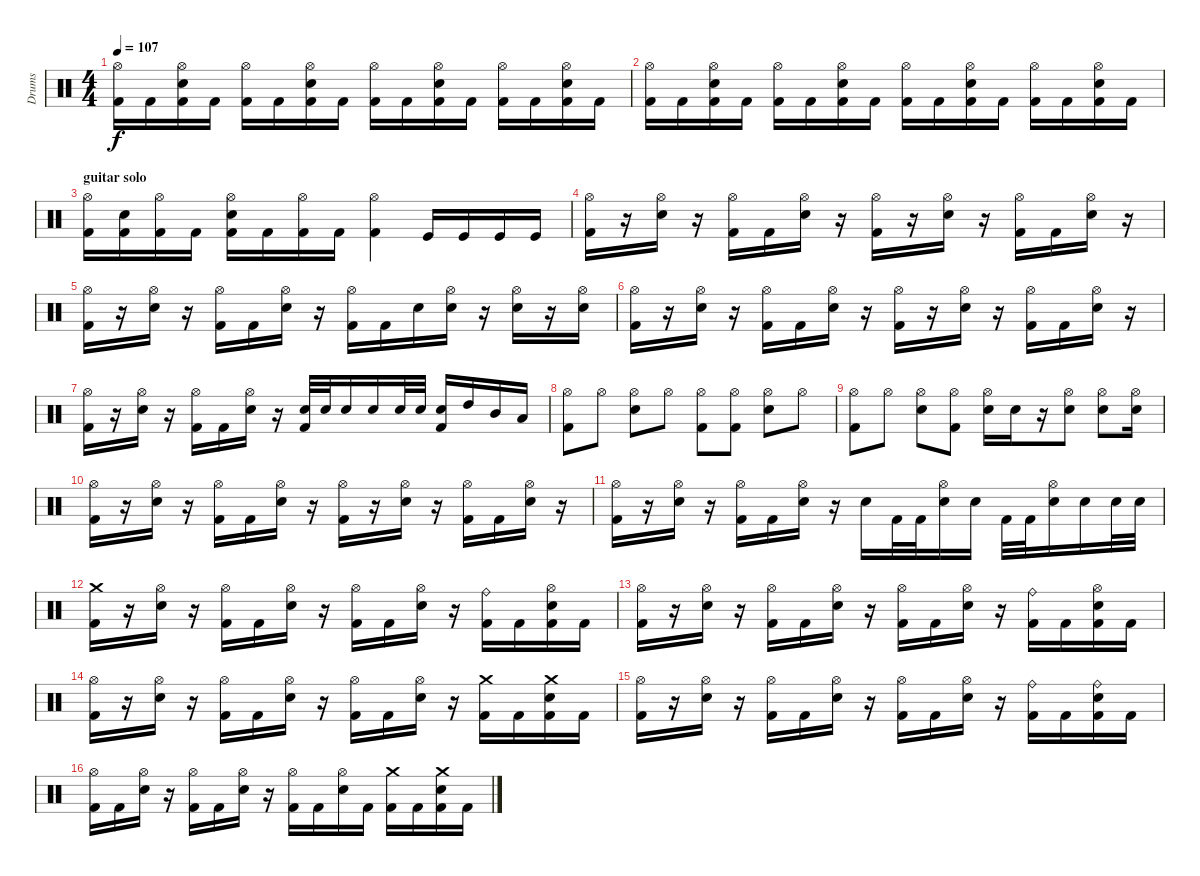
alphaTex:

\track ("Drums" "Drums") {instrument percussion}
\staff {score}
\articulation defaults
\ts (4 4)
\tempo 107
\clef neutral
\ks c
("Hi-Hat (open)" "Kick (hit) 2").16{dy f} "Kick (hit) 2".16 ("Hi-Hat (open)" "Snare (hit) 2" "Kick (hit) 2").16 "Kick (hit) 2".16 ("Hi-Hat (open)" "Kick (hit) 2").16 "Kick (hit) 2".16 ("Hi-Hat (open)" "Snare (hit) 2" "Kick (hit) 2").16 "Kick (hit) 2".16 ("Hi-Hat (open)" "Kick (hit) 2").16 "Kick (hit) 2".16 ("Hi-Hat (open)" "Snare (hit) 2" "Kick (hit) 2").16 "Kick (hit) 2".16 ("Hi-Hat (open)" "Kick (hit) 2").16 "Kick (hit) 2".16 ("Hi-Hat (open)" "Snare (hit) 2" "Kick (hit) 2").16 "Kick (hit) 2".16 |
("Hi-Hat (open)" "Kick (hit) 2").16 "Kick (hit) 2".16 ("Hi-Hat (open)" "Snare (hit) 2" "Kick (hit) 2").16 "Kick (hit) 2".16 ("Hi-Hat (open)" "Kick (hit) 2").16 "Kick (hit) 2".16 ("Hi-Hat (open)" "Snare (hit) 2" "Kick (hit) 2").16 "Kick (hit) 2".16 ("Hi-Hat (open)" "Kick (hit) 2").16 "Kick (hit) 2".16 ("Hi-Hat (open)" "Snare (hit) 2" "Kick (hit) 2").16 "Kick (hit) 2".16 ("Hi-Hat (open)" "Kick (hit) 2").16 "Kick (hit) 2".16 ("Hi-Hat (open)" "Snare (hit) 2" "Kick (hit) 2").16 "Kick (hit) 2".16 |
\section ("" "guitar solo")
("Hi-Hat (open)" "Kick (hit) 2").16 ("Snare (hit) 2" "Kick (hit) 2").16 ("Hi-Hat (open)" "Kick (hit) 2").16 "Kick (hit) 2".16 ("Hi-Hat (open)" "Snare (hit) 2" "Kick (hit) 2").16 "Kick (hit) 2".16 ("Hi-Hat (open)" "Kick (hit) 2").16 "Kick (hit) 2".16 ("Hi-Hat (open)" "Kick (hit) 2").4 "Kick (hit)".16 "Kick (hit)".16 "Kick (hit)".16 "Kick (hit)".16 |
("Hi-Hat (open)" "Kick (hit) 2").16 r.16 ("Hi-Hat (open)" "Snare (hit) 2").16 r.16 ("Hi-Hat (open)" "Kick (hit) 2").16 "Kick (hit) 2".16 ("Hi-Hat (open)" "Snare (hit) 2").16 r.16 ("Hi-Hat (open)" "Kick (hit) 2").16 r.16 ("Hi-Hat (open)" "Snare (hit) 2").16 r.16 ("Hi-Hat (open)" "Kick (hit) 2").16 "Kick (hit) 2".16 ("Hi-Hat (open)" "Snare (hit) 2").16 r.16 |
("Hi-Hat (open)" "Kick (hit) 2").16 r.16 ("Hi-Hat (open)" "Snare (hit) 2").16 r.16 ("Hi-Hat (open)" "Kick (hit) 2").16 "Kick (hit) 2".16 ("Hi-Hat (open)" "Snare (hit) 2").16 r.16 ("Hi-Hat (open)" "Kick (hit) 2").16 "Kick (hit) 2".16 "Snare (hit) 2".16 ("Hi-Hat (open)" "Snare (hit) 2").16 r.16 ("Hi-Hat (open)" "Snare (hit) 2").16 r.16 ("Hi-Hat (open)" "Snare (hit) 2").16 |
("Hi-Hat (open)" "Kick (hit) 2").16 r.16 ("Hi-Hat (open)" "Snare (hit) 2").16 r.16 ("Hi-Hat (open)" "Kick (hit) 2").16 "Kick (hit) 2".16 ("Hi-Hat (open)" "Snare (hit) 2").16 r.16 ("Hi-Hat (open)" "Kick (hit) 2").16 r.16 ("Hi-Hat (open)" "Snare (hit) 2").16 r.16 ("Hi-Hat (open)" "Kick (hit) 2").16 "Kick (hit) 2".16 ("Hi-Hat (open)" "Snare (hit) 2").16 r.16 |
("Hi-Hat (open)" "Kick (hit) 2").16 r.16 ("Hi-Hat (open)" "Snare (hit) 2").16 r.16 ("Hi-Hat (open)" "Kick (hit) 2").16 "Kick (hit) 2".16 ("Hi-Hat (open)" "Snare (hit) 2").16 r.16 ("Snare (hit) 2" "Kick (hit) 2").32 "Snare (hit) 2".32 "Snare (hit) 2".16 "Snare (hit) 2".16 "Snare (hit) 2".32 "Snare (hit) 2".32 ("Snare (hit) 2" "Kick (hit) 2").16 "High Tom (hit)".16 "Mid Tom (hit)".16 "Low Tom (hit)".16 |
("Hi-Hat (open)" "Kick (hit) 2").8 "Hi-Hat (open)".8 ("Hi-Hat (open)" "Snare (hit) 2").8 "Hi-Hat (open)".8 ("Hi-Hat (open)" "Kick (hit) 2").8 ("Hi-Hat (open)" "Kick (hit) 2").8 ("Hi-Hat (open)" "Snare (hit) 2").8 "Hi-Hat (open)".8 |
("Hi-Hat (open)" "Kick (hit) 2").8 "Hi-Hat (open)".8 ("Hi-Hat (open)" "Snare (hit) 2").8 ("Hi-Hat (open)" "Kick (hit) 2").8 ("Hi-Hat (open)" "Snare (hit) 2").16 "Snare (hit) 2".16 r.16 ("Hi-Hat (open)" "Snare (hit) 2").8 ("Hi-Hat (open)" "Snare (hit) 2").8 ("Hi-Hat (open)" "Snare (hit) 2").16 |
("Hi-Hat (open)" "Kick (hit) 2").16 r.16 ("Hi-Hat (open)" "Snare (hit) 2").16 r.16 ("Hi-Hat (open)" "Kick (hit) 2").16 "Kick (hit) 2".16 ("Hi-Hat (open)" "Snare (hit) 2").16 r.16 ("Hi-Hat (open)" "Kick (hit) 2").16 r.16 ("Hi-Hat (open)" "Snare (hit) 2").16 r.16 ("Hi-Hat (open)" "Kick (hit) 2").16 "Kick (hit) 2".16 ("Hi-Hat (open)" "Snare (hit) 2").16 r.16 |
("Hi-Hat (open)" "Kick (hit) 2").16 r.16 ("Hi-Hat (open)" "Snare (hit) 2").16 r.16 ("Hi-Hat (open)" "Kick (hit) 2").16 "Kick (hit) 2".16 ("Hi-Hat (open)" "Snare (hit) 2").16 r.16 "Snare (hit) 2".16 "Kick (hit) 2".32 "Kick (hit) 2".32 ("Hi-Hat (open)" "Snare (hit) 2").16 "Snare (hit) 2".16 "Kick (hit) 2".32 "Kick (hit) 2".32 ("Hi-Hat (open)" "Snare (hit) 2").16 "Snare (hit) 2".16 "Snare (hit) 2".32 "Snare (hit) 2".32 |
("Crash medium (hit)" "Kick (hit) 2").16 r.16 ("Hi-Hat (open)" "Snare (hit) 2").16 r.16 ("Hi-Hat (open)" "Kick (hit) 2").16 "Kick (hit) 2".16 ("Hi-Hat (open)" "Snare (hit) 2").16 r.16 ("Hi-Hat (open)" "Kick (hit) 2").16 "Kick (hit) 2".16 ("Hi-Hat (open)" "Snare (hit) 2").16 r.16 ("Ride (bell)" "Kick (hit) 2").16 "Kick (hit) 2".16 ("Hi-Hat (open)" "Snare (hit) 2" "Kick (hit) 2").16 "Kick (hit) 2".16 |
("Hi-Hat (open)" "Kick (hit) 2").16 r.16 ("Hi-Hat (open)" "Snare (hit) 2").16 r.16 ("Hi-Hat (open)" "Kick (hit) 2").16 "Kick (hit) 2".16 ("Hi-Hat (open)" "Snare (hit) 2").16 r.16 ("Hi-Hat (open)" "Kick (hit) 2").16 "Kick (hit) 2".16 ("Hi-Hat (open)" "Snare (hit) 2").16 r.16 ("Ride (bell)" "Kick (hit) 2").16 "Kick (hit) 2".16 ("Hi-Hat (open)" "Snare (hit) 2" "Kick (hit) 2").16 "Kick (hit) 2".16 |
("Hi-Hat (open)" "Kick (hit) 2").16 r.16 ("Hi-Hat (open)" "Snare (hit) 2").16 r.16 ("Hi-Hat (open)" "Kick (hit) 2").16 "Kick (hit) 2".16 ("Hi-Hat (open)" "Snare (hit) 2").16 r.16 ("Hi-Hat (open)" "Kick (hit) 2").16 "Kick (hit) 2".16 ("Hi-Hat (open)" "Snare (hit) 2").16 r.16 ("Crash medium (hit)" "Kick (hit) 2").16 "Kick (hit) 2".16 ("Crash medium (hit)" "Snare (hit) 2" "Kick (hit) 2").16 "Kick (hit) 2".16 |
("Hi-Hat (open)" "Kick (hit) 2").16 r.16 ("Hi-Hat (open)" "Snare (hit) 2").16 r.16 ("Hi-Hat (open)" "Kick (hit) 2").16 "Kick (hit) 2".16 ("Hi-Hat (open)" "Snare (hit) 2").16 r.16 ("Hi-Hat (open)" "Kick (hit) 2").16 "Kick (hit) 2".16 ("Hi-Hat (open)" "Snare (hit) 2").16 r.16 ("Ride (bell)" "Kick (hit) 2").16 "Kick (hit) 2".16 ("Ride (bell)" "Snare (hit) 2" "Kick (hit) 2").16 "Kick (hit) 2".16 |
("Hi-Hat (open)" "Kick (hit) 2").16 "Kick (hit) 2".16 ("Hi-Hat (open)" "Snare (hit) 2").16 r.16 ("Hi-Hat (open)" "Kick (hit) 2").16 "Kick (hit) 2".16 ("Hi-Hat (open)" "Snare (hit) 2").16 r.16 ("Hi-Hat (open)" "Kick (hit) 2").16 "Kick (hit) 2".16 ("Hi-Hat (open)" "Snare (hit) 2").16 "Kick (hit) 2".16 ("Crash medium (hit)" "Kick (hit) 2").16 "Kick (hit) 2".16 ("Crash medium (hit)" "Snare (hit) 2" "Kick (hit) 2").16 "Kick (hit) 2".16
